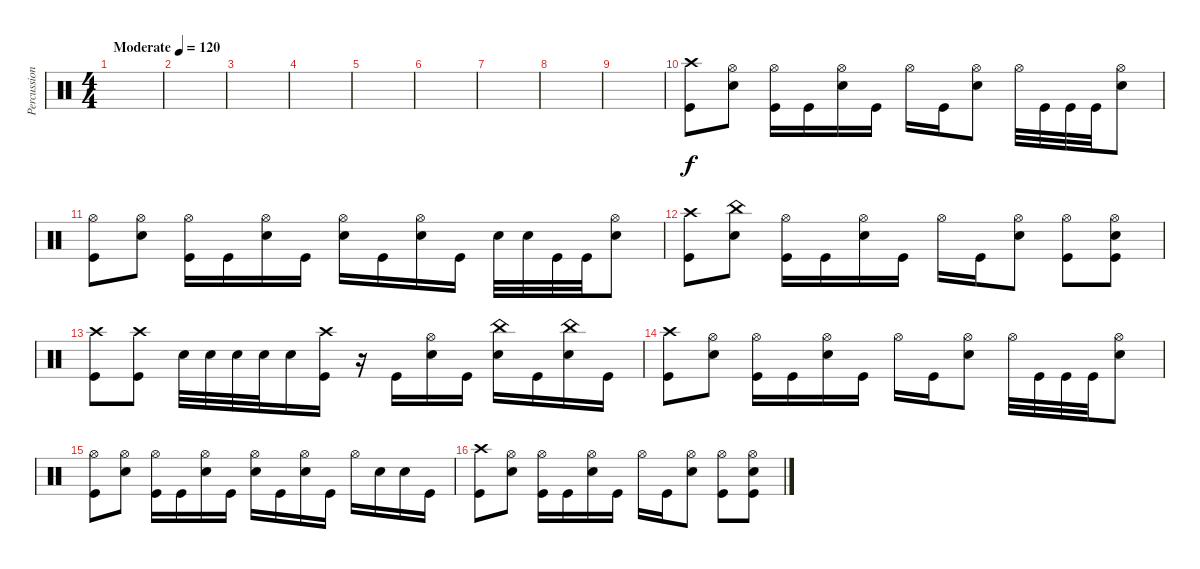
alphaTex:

\track ("Percussion" "Percussion") {instrument percussion}
\staff {score}
\articulation defaults
\ts (4 4)
\tempo (120 "Moderate")
\clef neutral
\ks c
|
|
|
|
|
|
|
|
|
("Crash high (hit)" "Kick (hit)").8 ("Snare (hit) 2" "Hi-Hat (open)").8 ("Hi-Hat (open)" "Kick (hit)").16 "Kick (hit)".16 ("Snare (hit) 2" "Hi-Hat (open)").16 "Kick (hit)".16 "Hi-Hat (open)".16 "Kick (hit)".16 ("Snare (hit) 2" "Hi-Hat (open)").8 "Hi-Hat (open)".32 "Kick (hit)".32 "Kick (hit)".32 "Kick (hit)".32 ("Snare (hit) 2" "Hi-Hat (open)").8 |
("Hi-Hat (open)" "Kick (hit)").8 ("Snare (hit) 2" "Hi-Hat (open)").8 ("Hi-Hat (open)" "Kick (hit)").16 "Kick (hit)".16 ("Snare (hit) 2" "Hi-Hat (open)").16 "Kick (hit)".16 ("Hi-Hat (open)" "Snare (hit) 2").16 "Kick (hit)".16 ("Snare (hit) 2" "Hi-Hat (open)").16 "Kick (hit)".16 "Snare (hit) 2".32 "Snare (hit) 2".32 "Kick (hit)".32 "Kick (hit)".32 ("Snare (hit) 2" "Hi-Hat (open)").8 |
("Crash high (hit)" "Kick (hit)").8 ("China (hit)" "Snare (hit) 2").8 ("Hi-Hat (open)" "Kick (hit)").16 "Kick (hit)".16 ("Snare (hit) 2" "Hi-Hat (open)").16 "Kick (hit)".16 "Hi-Hat (open)".16 "Kick (hit)".16 ("Snare (hit) 2" "Hi-Hat (open)").8 ("Hi-Hat (open)" "Kick (hit)").8 ("Hi-Hat (open)" "Snare (hit) 2" "Kick (hit)").8 |
("Crash high (hit)" "Kick (hit)").8 ("Kick (hit)" "Crash high (hit)").8 "Snare (hit) 2".32 "Snare (hit) 2".32 "Snare (hit) 2".32 "Snare (hit) 2".32 "Snare (hit) 2".16 ("Crash high (hit)" "Kick (hit)").16 r.16 "Kick (hit)".16 ("Snare (hit) 2" "Hi-Hat (open)").16 "Kick (hit)".16 ("Snare (hit) 2" "China (hit)").16 "Kick (hit)".16 ("Snare (hit) 2" "China (hit)").16 "Kick (hit)".16 |
("Crash high (hit)" "Kick (hit)").8 ("Snare (hit) 2" "Hi-Hat (open)").8 ("Hi-Hat (open)" "Kick (hit)").16 "Kick (hit)".16 ("Snare (hit) 2" "Hi-Hat (open)").16 "Kick (hit)".16 "Hi-Hat (open)".16 "Kick (hit)".16 ("Snare (hit) 2" "Hi-Hat (open)").8 "Hi-Hat (open)".32 "Kick (hit)".32 "Kick (hit)".32 "Kick (hit)".32 ("Snare (hit) 2" "Hi-Hat (open)").8 |
("Hi-Hat (open)" "Kick (hit)").8 ("Snare (hit) 2" "Hi-Hat (open)").8 ("Hi-Hat (open)" "Kick (hit)").16 "Kick (hit)".16 ("Snare (hit) 2" "Hi-Hat (open)").16 "Kick (hit)".16 ("Hi-Hat (open)" "Snare (hit) 2").16 "Kick (hit)".16 ("Snare (hit) 2" "Hi-Hat (open)").16 "Kick (hit)".16 "Hi-Hat (open)".16 "Snare (hit) 2".16 "Snare (hit) 2".16 "Kick (hit)".16 |
("Crash high (hit)" "Kick (hit)").8 ("Snare (hit) 2" "Hi-Hat (open)").8 ("Hi-Hat (open)" "Kick (hit)").16 "Kick (hit)".16 ("Snare (hit) 2" "Hi-Hat (open)").16 "Kick (hit)".16 "Hi-Hat (open)".16 "Kick (hit)".16 ("Snare (hit) 2" "Hi-Hat (open)").8 ("Hi-Hat (open)" "Kick (hit)").8 ("Hi-Hat (open)" "Snare (hit) 2" "Kick (hit)").8
